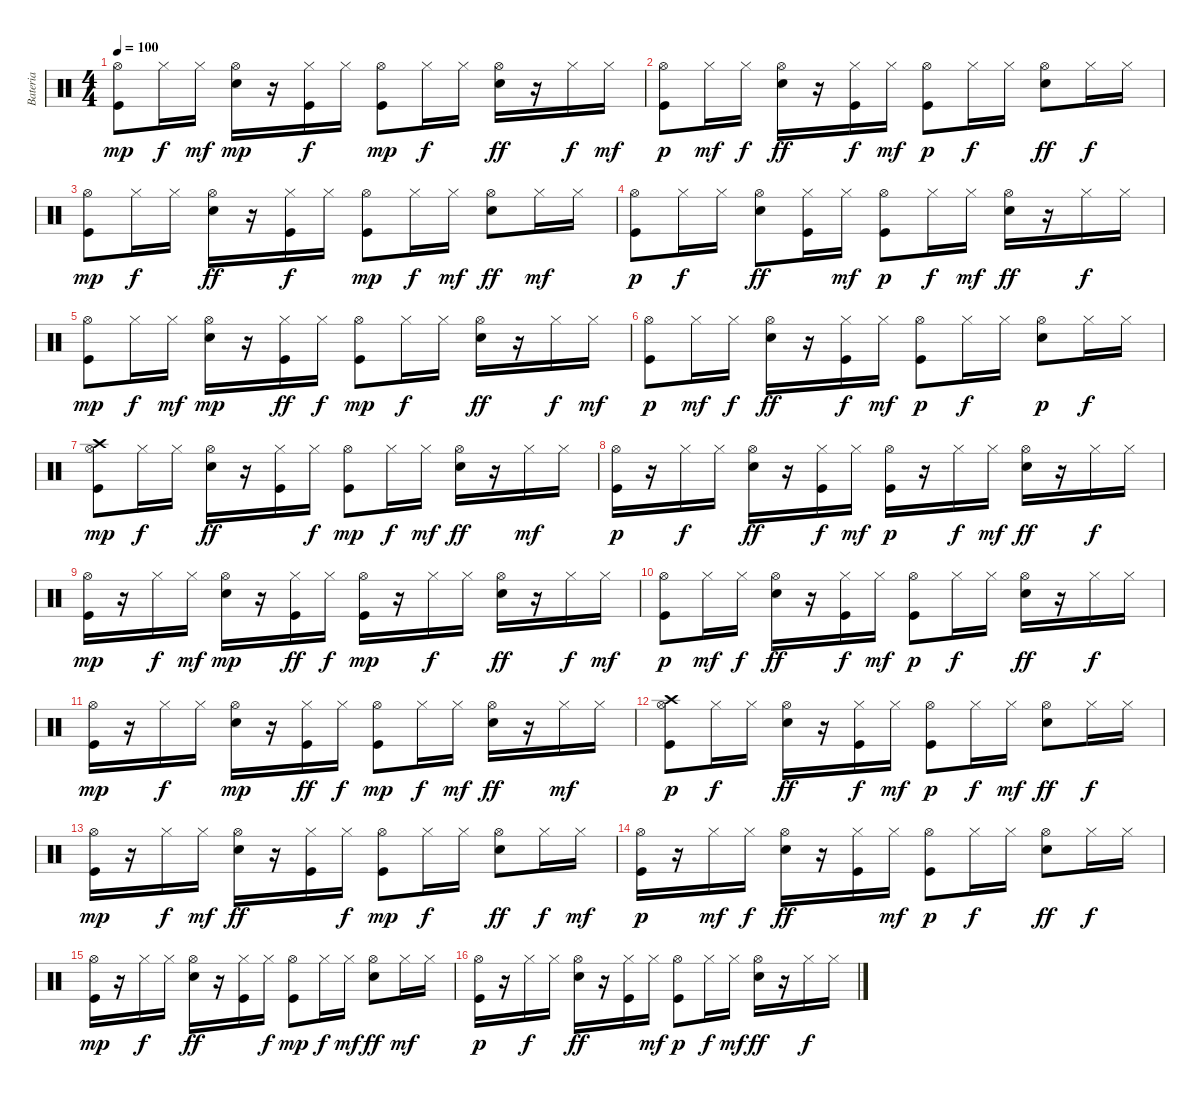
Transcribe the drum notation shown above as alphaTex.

\track ("Bateria" "Bateria") {solo instrument percussion}
\staff {score}
\articulation defaults
\ts (4 4)
\tempo 100
\clef neutral
\ks c
("Kick (hit)" "Hi-Hat (open)").8{dy mp} "Hi-Hat (closed)".16{dy f} "Hi-Hat (closed)".16{dy mf} ("Hi-Hat (open)" "Snare (hit) 2").16{dy mp} r.16 ("Kick (hit)" "Hi-Hat (closed)").16{dy f} "Hi-Hat (closed)".16 ("Kick (hit)" "Hi-Hat (open)").8{dy mp} "Hi-Hat (closed)".16{dy f} "Hi-Hat (closed)".16 ("Hi-Hat (open)" "Snare (hit) 2").16{dy ff} r.16 "Hi-Hat (closed)".16{dy f} "Hi-Hat (closed)".16{dy mf} |
("Kick (hit)" "Hi-Hat (open)").8{dy p} "Hi-Hat (closed)".16{dy mf} "Hi-Hat (closed)".16{dy f} ("Hi-Hat (open)" "Snare (hit) 2").16{dy ff} r.16 ("Kick (hit)" "Hi-Hat (closed)").16{dy f} "Hi-Hat (closed)".16{dy mf} ("Kick (hit)" "Hi-Hat (open)").8{dy p} "Hi-Hat (closed)".16{dy f} "Hi-Hat (closed)".16 ("Hi-Hat (open)" "Snare (hit) 2").8{dy ff} "Hi-Hat (closed)".16{dy f} "Hi-Hat (closed)".16 |
("Kick (hit)" "Hi-Hat (open)").8{dy mp} "Hi-Hat (closed)".16{dy f} "Hi-Hat (closed)".16 ("Hi-Hat (open)" "Snare (hit) 2").16{dy ff} r.16 ("Kick (hit)" "Hi-Hat (closed)").16{dy f} "Hi-Hat (closed)".16 ("Kick (hit)" "Hi-Hat (open)").8{dy mp} "Hi-Hat (closed)".16{dy f} "Hi-Hat (closed)".16{dy mf} ("Hi-Hat (open)" "Snare (hit) 2").8{dy ff} "Hi-Hat (closed)".16{dy mf} "Hi-Hat (closed)".16 |
("Kick (hit)" "Hi-Hat (open)").8{dy p} "Hi-Hat (closed)".16{dy f} "Hi-Hat (closed)".16 ("Hi-Hat (open)" "Snare (hit) 2").8{dy ff} ("Kick (hit)" "Hi-Hat (closed)").16 "Hi-Hat (closed)".16{dy mf} ("Kick (hit)" "Hi-Hat (open)").8{dy p} "Hi-Hat (closed)".16{dy f} "Hi-Hat (closed)".16{dy mf} ("Hi-Hat (open)" "Snare (hit) 2").16{dy ff} r.16 "Hi-Hat (closed)".16{dy f} "Hi-Hat (closed)".16 |
("Kick (hit)" "Hi-Hat (open)").8{dy mp} "Hi-Hat (closed)".16{dy f} "Hi-Hat (closed)".16{dy mf} ("Hi-Hat (open)" "Snare (hit) 2").16{dy mp} r.16 ("Kick (hit)" "Hi-Hat (closed)").16{dy ff} "Hi-Hat (closed)".16{dy f} ("Kick (hit)" "Hi-Hat (open)").8{dy mp} "Hi-Hat (closed)".16{dy f} "Hi-Hat (closed)".16 ("Hi-Hat (open)" "Snare (hit) 2").16{dy ff} r.16 "Hi-Hat (closed)".16{dy f} "Hi-Hat (closed)".16{dy mf} |
("Kick (hit)" "Hi-Hat (open)").8{dy p} "Hi-Hat (closed)".16{dy mf} "Hi-Hat (closed)".16{dy f} ("Hi-Hat (open)" "Snare (hit) 2").16{dy ff} r.16 ("Kick (hit)" "Hi-Hat (closed)").16{dy f} "Hi-Hat (closed)".16{dy mf} ("Kick (hit)" "Hi-Hat (open)").8{dy p} "Hi-Hat (closed)".16{dy f} "Hi-Hat (closed)".16 ("Hi-Hat (open)" "Snare (hit) 2").8{dy p} "Hi-Hat (closed)".16{dy f} "Hi-Hat (closed)".16 |
("Kick (hit)" "Crash high (hit)" "Hi-Hat (open)").8{dy mp} "Hi-Hat (closed)".16{dy f} "Hi-Hat (closed)".16 ("Hi-Hat (open)" "Snare (hit) 2").16{dy ff} r.16 ("Kick (hit)" "Hi-Hat (closed)").16 "Hi-Hat (closed)".16{dy f} ("Kick (hit)" "Hi-Hat (open)").8{dy mp} "Hi-Hat (closed)".16{dy f} "Hi-Hat (closed)".16{dy mf} ("Hi-Hat (open)" "Snare (hit) 2").16{dy ff} r.16 "Hi-Hat (closed)".16{dy mf} "Hi-Hat (closed)".16 |
("Kick (hit)" "Hi-Hat (open)").16{dy p} r.16 "Hi-Hat (closed)".16{dy f} "Hi-Hat (closed)".16 ("Hi-Hat (open)" "Snare (hit) 2").16{dy ff} r.16 ("Kick (hit)" "Hi-Hat (closed)").16{dy f} "Hi-Hat (closed)".16{dy mf} ("Kick (hit)" "Hi-Hat (open)").16{dy p} r.16 "Hi-Hat (closed)".16{dy f} "Hi-Hat (closed)".16{dy mf} ("Hi-Hat (open)" "Snare (hit) 2").16{dy ff} r.16 "Hi-Hat (closed)".16{dy f} "Hi-Hat (closed)".16 |
("Kick (hit)" "Hi-Hat (open)").16{dy mp} r.16 "Hi-Hat (closed)".16{dy f} "Hi-Hat (closed)".16{dy mf} ("Hi-Hat (open)" "Snare (hit) 2").16{dy mp} r.16 ("Kick (hit)" "Hi-Hat (closed)").16{dy ff} "Hi-Hat (closed)".16{dy f} ("Kick (hit)" "Hi-Hat (open)").16{dy mp} r.16 "Hi-Hat (closed)".16{dy f} "Hi-Hat (closed)".16 ("Hi-Hat (open)" "Snare (hit) 2").16{dy ff} r.16 "Hi-Hat (closed)".16{dy f} "Hi-Hat (closed)".16{dy mf} |
("Kick (hit)" "Hi-Hat (open)").8{dy p} "Hi-Hat (closed)".16{dy mf} "Hi-Hat (closed)".16{dy f} ("Hi-Hat (open)" "Snare (hit) 2").16{dy ff} r.16 ("Kick (hit)" "Hi-Hat (closed)").16{dy f} "Hi-Hat (closed)".16{dy mf} ("Kick (hit)" "Hi-Hat (open)").8{dy p} "Hi-Hat (closed)".16{dy f} "Hi-Hat (closed)".16 ("Hi-Hat (open)" "Snare (hit) 2").16{dy ff} r.16 "Hi-Hat (closed)".16{dy f} "Hi-Hat (closed)".16 |
("Kick (hit)" "Hi-Hat (open)").16{dy mp} r.16 "Hi-Hat (closed)".16{dy f} "Hi-Hat (closed)".16 ("Hi-Hat (open)" "Snare (hit) 2").16{dy mp} r.16 ("Kick (hit)" "Hi-Hat (closed)").16{dy ff} "Hi-Hat (closed)".16{dy f} ("Kick (hit)" "Hi-Hat (open)").8{dy mp} "Hi-Hat (closed)".16{dy f} "Hi-Hat (closed)".16{dy mf} ("Hi-Hat (open)" "Snare (hit) 2").16{dy ff} r.16 "Hi-Hat (closed)".16{dy mf} "Hi-Hat (closed)".16 |
("Kick (hit)" "Crash high (hit)" "Hi-Hat (open)").8{dy p} "Hi-Hat (closed)".16{dy f} "Hi-Hat (closed)".16 ("Hi-Hat (open)" "Snare (hit) 2").16{dy ff} r.16 ("Kick (hit)" "Hi-Hat (closed)").16{dy f} "Hi-Hat (closed)".16{dy mf} ("Kick (hit)" "Hi-Hat (open)").8{dy p} "Hi-Hat (closed)".16{dy f} "Hi-Hat (closed)".16{dy mf} ("Hi-Hat (open)" "Snare (hit) 2").8{dy ff} "Hi-Hat (closed)".16{dy f} "Hi-Hat (closed)".16 |
("Kick (hit)" "Hi-Hat (open)").16{dy mp} r.16 "Hi-Hat (closed)".16{dy f} "Hi-Hat (closed)".16{dy mf} ("Hi-Hat (open)" "Snare (hit) 2").16{dy ff} r.16 ("Kick (hit)" "Hi-Hat (closed)").16 "Hi-Hat (closed)".16{dy f} ("Kick (hit)" "Hi-Hat (open)").8{dy mp} "Hi-Hat (closed)".16{dy f} "Hi-Hat (closed)".16 ("Hi-Hat (open)" "Snare (hit) 2").8{dy ff} "Hi-Hat (closed)".16{dy f} "Hi-Hat (closed)".16{dy mf} |
("Kick (hit)" "Hi-Hat (open)").16{dy p} r.16 "Hi-Hat (closed)".16{dy mf} "Hi-Hat (closed)".16{dy f} ("Hi-Hat (open)" "Snare (hit) 2").16{dy ff} r.16 ("Kick (hit)" "Hi-Hat (closed)").16 "Hi-Hat (closed)".16{dy mf} ("Kick (hit)" "Hi-Hat (open)").8{dy p} "Hi-Hat (closed)".16{dy f} "Hi-Hat (closed)".16 ("Hi-Hat (open)" "Snare (hit) 2").8{dy ff} "Hi-Hat (closed)".16{dy f} "Hi-Hat (closed)".16 |
("Kick (hit)" "Hi-Hat (open)").16{dy mp} r.16 "Hi-Hat (closed)".16{dy f} "Hi-Hat (closed)".16 ("Hi-Hat (open)" "Snare (hit) 2").16{dy ff} r.16 ("Kick (hit)" "Hi-Hat (closed)").16 "Hi-Hat (closed)".16{dy f} ("Kick (hit)" "Hi-Hat (open)").8{dy mp} "Hi-Hat (closed)".16{dy f} "Hi-Hat (closed)".16{dy mf} ("Hi-Hat (open)" "Snare (hit) 2").8{dy ff} "Hi-Hat (closed)".16{dy mf} "Hi-Hat (closed)".16 |
("Kick (hit)" "Hi-Hat (open)").16{dy p} r.16 "Hi-Hat (closed)".16{dy f} "Hi-Hat (closed)".16 ("Hi-Hat (open)" "Snare (hit) 2").16{dy ff} r.16 ("Kick (hit)" "Hi-Hat (closed)").16 "Hi-Hat (closed)".16{dy mf} ("Kick (hit)" "Hi-Hat (open)").8{dy p} "Hi-Hat (closed)".16{dy f} "Hi-Hat (closed)".16{dy mf} ("Hi-Hat (open)" "Snare (hit) 2").16{dy ff} r.16 "Hi-Hat (closed)".16{dy f} "Hi-Hat (closed)".16
